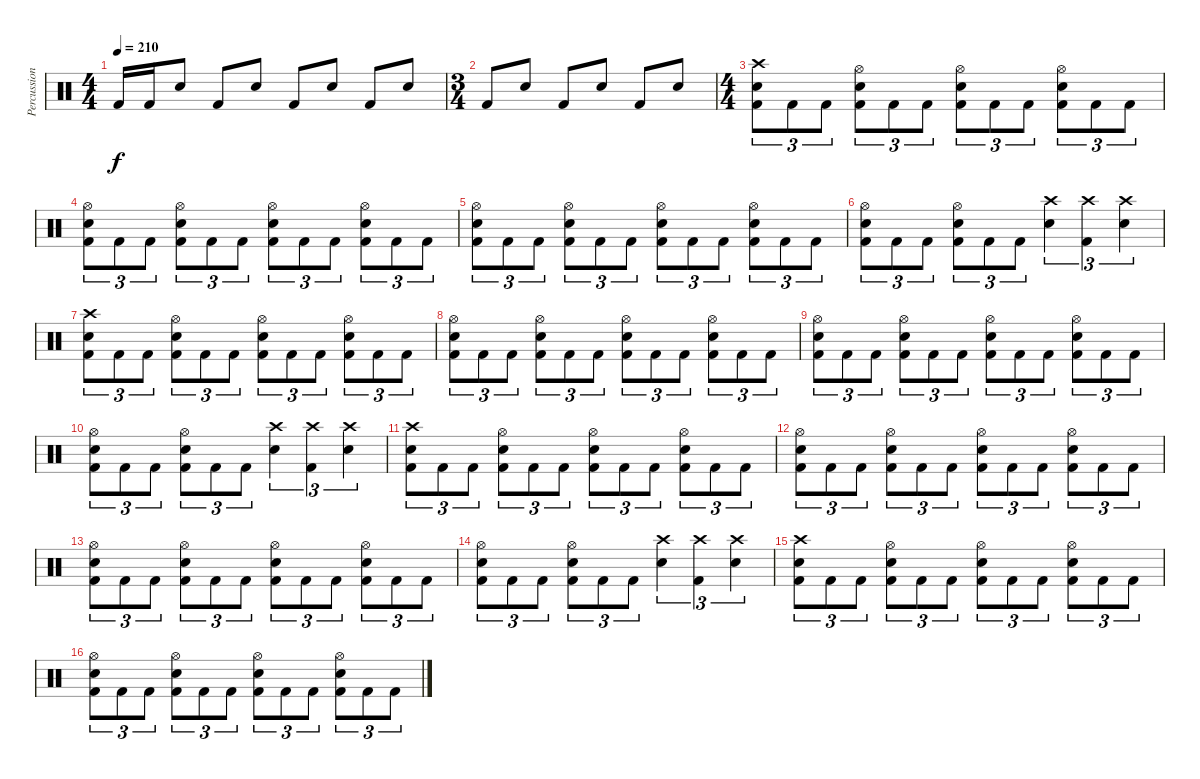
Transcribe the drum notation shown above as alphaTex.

\track ("Percussion" "Percussion") {instrument percussion}
\staff {score}
\articulation defaults
\ts (4 4)
\tempo 210
\clef neutral
\ks c "Kick (hit) 2".16{dy f} "Kick (hit) 2".16 "Snare (hit) 2".8 "Kick (hit) 2".8 "Snare (hit) 2".8 "Kick (hit) 2".8 "Snare (hit) 2".8 "Kick (hit) 2".8 "Snare (hit) 2".8
|
\ts (3 4)
"Kick (hit) 2".8 "Snare (hit) 2".8 "Kick (hit) 2".8 "Snare (hit) 2".8 "Kick (hit) 2".8 "Snare (hit) 2".8 |
\ts (4 4)
("Crash high (hit)" "Snare (hit) 2" "Kick (hit) 2").8{tu (3 2)} "Kick (hit) 2".8{tu (3 2)} "Kick (hit) 2".8{tu (3 2)} ("Hi-Hat (open)" "Snare (hit) 2" "Kick (hit) 2").8{tu (3 2)} "Kick (hit) 2".8{tu (3 2)} "Kick (hit) 2".8{tu (3 2)} ("Hi-Hat (open)" "Snare (hit) 2" "Kick (hit) 2").8{tu (3 2)} "Kick (hit) 2".8{tu (3 2)} "Kick (hit) 2".8{tu (3 2)} ("Hi-Hat (open)" "Snare (hit) 2" "Kick (hit) 2").8{tu (3 2)} "Kick (hit) 2".8{tu (3 2)} "Kick (hit) 2".8{tu (3 2)} |
("Hi-Hat (open)" "Snare (hit) 2" "Kick (hit) 2").8{tu (3 2)} "Kick (hit) 2".8{tu (3 2)} "Kick (hit) 2".8{tu (3 2)} ("Hi-Hat (open)" "Snare (hit) 2" "Kick (hit) 2").8{tu (3 2)} "Kick (hit) 2".8{tu (3 2)} "Kick (hit) 2".8{tu (3 2)} ("Hi-Hat (open)" "Snare (hit) 2" "Kick (hit) 2").8{tu (3 2)} "Kick (hit) 2".8{tu (3 2)} "Kick (hit) 2".8{tu (3 2)} ("Hi-Hat (open)" "Snare (hit) 2" "Kick (hit) 2").8{tu (3 2)} "Kick (hit) 2".8{tu (3 2)} "Kick (hit) 2".8{tu (3 2)} |
("Hi-Hat (open)" "Snare (hit) 2" "Kick (hit) 2").8{tu (3 2)} "Kick (hit) 2".8{tu (3 2)} "Kick (hit) 2".8{tu (3 2)} ("Hi-Hat (open)" "Snare (hit) 2" "Kick (hit) 2").8{tu (3 2)} "Kick (hit) 2".8{tu (3 2)} "Kick (hit) 2".8{tu (3 2)} ("Hi-Hat (open)" "Snare (hit) 2" "Kick (hit) 2").8{tu (3 2)} "Kick (hit) 2".8{tu (3 2)} "Kick (hit) 2".8{tu (3 2)} ("Hi-Hat (open)" "Snare (hit) 2" "Kick (hit) 2").8{tu (3 2)} "Kick (hit) 2".8{tu (3 2)} "Kick (hit) 2".8{tu (3 2)} |
("Hi-Hat (open)" "Snare (hit) 2" "Kick (hit) 2").8{tu (3 2)} "Kick (hit) 2".8{tu (3 2)} "Kick (hit) 2".8{tu (3 2)} ("Hi-Hat (open)" "Snare (hit) 2" "Kick (hit) 2").8{tu (3 2)} "Kick (hit) 2".8{tu (3 2)} "Kick (hit) 2".8{tu (3 2)} ("Crash high (hit)" "Snare (hit) 2").4{tu (3 2)} ("Crash high (hit)" "Kick (hit) 2").4{tu (3 2)} ("Crash high (hit)" "Snare (hit) 2").4{tu (3 2)} |
("Crash high (hit)" "Snare (hit) 2" "Kick (hit) 2").8{tu (3 2)} "Kick (hit) 2".8{tu (3 2)} "Kick (hit) 2".8{tu (3 2)} ("Hi-Hat (open)" "Snare (hit) 2" "Kick (hit) 2").8{tu (3 2)} "Kick (hit) 2".8{tu (3 2)} "Kick (hit) 2".8{tu (3 2)} ("Hi-Hat (open)" "Snare (hit) 2" "Kick (hit) 2").8{tu (3 2)} "Kick (hit) 2".8{tu (3 2)} "Kick (hit) 2".8{tu (3 2)} ("Hi-Hat (open)" "Snare (hit) 2" "Kick (hit) 2").8{tu (3 2)} "Kick (hit) 2".8{tu (3 2)} "Kick (hit) 2".8{tu (3 2)} |
("Hi-Hat (open)" "Snare (hit) 2" "Kick (hit) 2").8{tu (3 2)} "Kick (hit) 2".8{tu (3 2)} "Kick (hit) 2".8{tu (3 2)} ("Hi-Hat (open)" "Snare (hit) 2" "Kick (hit) 2").8{tu (3 2)} "Kick (hit) 2".8{tu (3 2)} "Kick (hit) 2".8{tu (3 2)} ("Hi-Hat (open)" "Snare (hit) 2" "Kick (hit) 2").8{tu (3 2)} "Kick (hit) 2".8{tu (3 2)} "Kick (hit) 2".8{tu (3 2)} ("Hi-Hat (open)" "Snare (hit) 2" "Kick (hit) 2").8{tu (3 2)} "Kick (hit) 2".8{tu (3 2)} "Kick (hit) 2".8{tu (3 2)} |
("Hi-Hat (open)" "Snare (hit) 2" "Kick (hit) 2").8{tu (3 2)} "Kick (hit) 2".8{tu (3 2)} "Kick (hit) 2".8{tu (3 2)} ("Hi-Hat (open)" "Snare (hit) 2" "Kick (hit) 2").8{tu (3 2)} "Kick (hit) 2".8{tu (3 2)} "Kick (hit) 2".8{tu (3 2)} ("Hi-Hat (open)" "Snare (hit) 2" "Kick (hit) 2").8{tu (3 2)} "Kick (hit) 2".8{tu (3 2)} "Kick (hit) 2".8{tu (3 2)} ("Hi-Hat (open)" "Snare (hit) 2" "Kick (hit) 2").8{tu (3 2)} "Kick (hit) 2".8{tu (3 2)} "Kick (hit) 2".8{tu (3 2)} |
("Hi-Hat (open)" "Snare (hit) 2" "Kick (hit) 2").8{tu (3 2)} "Kick (hit) 2".8{tu (3 2)} "Kick (hit) 2".8{tu (3 2)} ("Hi-Hat (open)" "Snare (hit) 2" "Kick (hit) 2").8{tu (3 2)} "Kick (hit) 2".8{tu (3 2)} "Kick (hit) 2".8{tu (3 2)} ("Crash high (hit)" "Snare (hit) 2").4{tu (3 2)} ("Crash high (hit)" "Kick (hit) 2").4{tu (3 2)} ("Crash high (hit)" "Snare (hit) 2").4{tu (3 2)} |
("Crash high (hit)" "Snare (hit) 2" "Kick (hit) 2").8{tu (3 2)} "Kick (hit) 2".8{tu (3 2)} "Kick (hit) 2".8{tu (3 2)} ("Hi-Hat (open)" "Snare (hit) 2" "Kick (hit) 2").8{tu (3 2)} "Kick (hit) 2".8{tu (3 2)} "Kick (hit) 2".8{tu (3 2)} ("Hi-Hat (open)" "Snare (hit) 2" "Kick (hit) 2").8{tu (3 2)} "Kick (hit) 2".8{tu (3 2)} "Kick (hit) 2".8{tu (3 2)} ("Hi-Hat (open)" "Snare (hit) 2" "Kick (hit) 2").8{tu (3 2)} "Kick (hit) 2".8{tu (3 2)} "Kick (hit) 2".8{tu (3 2)} |
("Hi-Hat (open)" "Snare (hit) 2" "Kick (hit) 2").8{tu (3 2)} "Kick (hit) 2".8{tu (3 2)} "Kick (hit) 2".8{tu (3 2)} ("Hi-Hat (open)" "Snare (hit) 2" "Kick (hit) 2").8{tu (3 2)} "Kick (hit) 2".8{tu (3 2)} "Kick (hit) 2".8{tu (3 2)} ("Hi-Hat (open)" "Snare (hit) 2" "Kick (hit) 2").8{tu (3 2)} "Kick (hit) 2".8{tu (3 2)} "Kick (hit) 2".8{tu (3 2)} ("Hi-Hat (open)" "Snare (hit) 2" "Kick (hit) 2").8{tu (3 2)} "Kick (hit) 2".8{tu (3 2)} "Kick (hit) 2".8{tu (3 2)} |
("Hi-Hat (open)" "Snare (hit) 2" "Kick (hit) 2").8{tu (3 2)} "Kick (hit) 2".8{tu (3 2)} "Kick (hit) 2".8{tu (3 2)} ("Hi-Hat (open)" "Snare (hit) 2" "Kick (hit) 2").8{tu (3 2)} "Kick (hit) 2".8{tu (3 2)} "Kick (hit) 2".8{tu (3 2)} ("Hi-Hat (open)" "Snare (hit) 2" "Kick (hit) 2").8{tu (3 2)} "Kick (hit) 2".8{tu (3 2)} "Kick (hit) 2".8{tu (3 2)} ("Hi-Hat (open)" "Snare (hit) 2" "Kick (hit) 2").8{tu (3 2)} "Kick (hit) 2".8{tu (3 2)} "Kick (hit) 2".8{tu (3 2)} |
("Hi-Hat (open)" "Snare (hit) 2" "Kick (hit) 2").8{tu (3 2)} "Kick (hit) 2".8{tu (3 2)} "Kick (hit) 2".8{tu (3 2)} ("Hi-Hat (open)" "Snare (hit) 2" "Kick (hit) 2").8{tu (3 2)} "Kick (hit) 2".8{tu (3 2)} "Kick (hit) 2".8{tu (3 2)} ("Crash high (hit)" "Snare (hit) 2").4{tu (3 2)} ("Crash high (hit)" "Kick (hit) 2").4{tu (3 2)} ("Crash high (hit)" "Snare (hit) 2").4{tu (3 2)} |
("Crash high (hit)" "Snare (hit) 2" "Kick (hit) 2").8{tu (3 2)} "Kick (hit) 2".8{tu (3 2)} "Kick (hit) 2".8{tu (3 2)} ("Hi-Hat (open)" "Snare (hit) 2" "Kick (hit) 2").8{tu (3 2)} "Kick (hit) 2".8{tu (3 2)} "Kick (hit) 2".8{tu (3 2)} ("Hi-Hat (open)" "Snare (hit) 2" "Kick (hit) 2").8{tu (3 2)} "Kick (hit) 2".8{tu (3 2)} "Kick (hit) 2".8{tu (3 2)} ("Hi-Hat (open)" "Snare (hit) 2" "Kick (hit) 2").8{tu (3 2)} "Kick (hit) 2".8{tu (3 2)} "Kick (hit) 2".8{tu (3 2)} |
("Hi-Hat (open)" "Snare (hit) 2" "Kick (hit) 2").8{tu (3 2)} "Kick (hit) 2".8{tu (3 2)} "Kick (hit) 2".8{tu (3 2)} ("Hi-Hat (open)" "Snare (hit) 2" "Kick (hit) 2").8{tu (3 2)} "Kick (hit) 2".8{tu (3 2)} "Kick (hit) 2".8{tu (3 2)} ("Hi-Hat (open)" "Snare (hit) 2" "Kick (hit) 2").8{tu (3 2)} "Kick (hit) 2".8{tu (3 2)} "Kick (hit) 2".8{tu (3 2)} ("Hi-Hat (open)" "Snare (hit) 2" "Kick (hit) 2").8{tu (3 2)} "Kick (hit) 2".8{tu (3 2)} "Kick (hit) 2".8{tu (3 2)}
